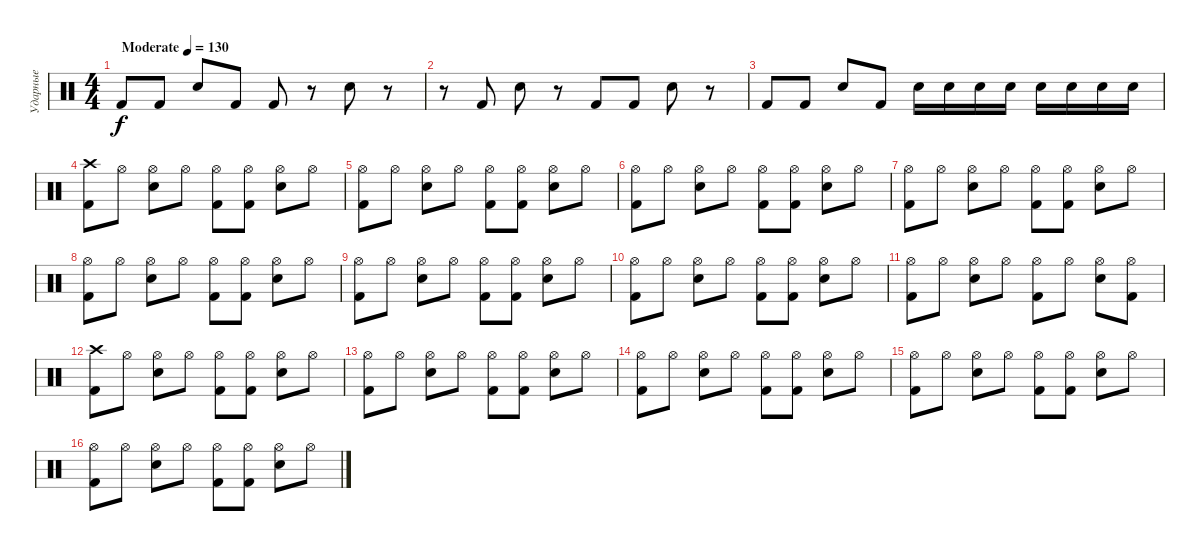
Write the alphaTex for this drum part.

\track ("Ударные" "Ударные") {instrument percussion}
\staff {score}
\articulation defaults
\ts (4 4)
\tempo (130 "Moderate")
\clef neutral
\ks c "Kick (hit) 2".8{dy f} "Kick (hit) 2".8 "Snare (hit) 2".8 "Kick (hit) 2".8 "Kick (hit) 2".8
r.8 "Snare (hit) 2".8 r.8 |
r.8 "Kick (hit) 2".8 "Snare (hit) 2".8 r.8 "Kick (hit) 2".8 "Kick (hit) 2".8 "Snare (hit) 2".8 r.8 |
"Kick (hit) 2".8 "Kick (hit) 2".8 "Snare (hit) 2".8 "Kick (hit) 2".8 "Electric Snare (hit)".16 "Electric Snare (hit)".16 "Electric Snare (hit)".16 "Electric Snare (hit)".16 "Electric Snare (hit)".16 "Electric Snare (hit)".16 "Electric Snare (hit)".16 "Electric Snare (hit)".16 |
("Crash high (hit)" "Kick (hit) 2").8 "Hi-Hat (open)".8 ("Electric Snare (hit)" "Hi-Hat (open)").8 "Hi-Hat (open)".8 ("Hi-Hat (open)" "Kick (hit) 2").8 ("Hi-Hat (open)" "Kick (hit) 2").8 ("Hi-Hat (open)" "Electric Snare (hit)").8 "Hi-Hat (open)".8 |
("Hi-Hat (open)" "Kick (hit) 2").8 "Hi-Hat (open)".8 ("Electric Snare (hit)" "Hi-Hat (open)").8 "Hi-Hat (open)".8 ("Hi-Hat (open)" "Kick (hit) 2").8 ("Hi-Hat (open)" "Kick (hit) 2").8 ("Hi-Hat (open)" "Electric Snare (hit)").8 "Hi-Hat (open)".8 |
("Hi-Hat (open)" "Kick (hit) 2").8 "Hi-Hat (open)".8 ("Electric Snare (hit)" "Hi-Hat (open)").8 "Hi-Hat (open)".8 ("Hi-Hat (open)" "Kick (hit) 2").8 ("Hi-Hat (open)" "Kick (hit) 2").8 ("Hi-Hat (open)" "Electric Snare (hit)").8 "Hi-Hat (open)".8 |
("Hi-Hat (open)" "Kick (hit) 2").8 "Hi-Hat (open)".8 ("Electric Snare (hit)" "Hi-Hat (open)").8 "Hi-Hat (open)".8 ("Hi-Hat (open)" "Kick (hit) 2").8 ("Hi-Hat (open)" "Kick (hit) 2").8 ("Hi-Hat (open)" "Electric Snare (hit)").8 "Hi-Hat (open)".8 |
("Hi-Hat (open)" "Kick (hit) 2").8 "Hi-Hat (open)".8 ("Electric Snare (hit)" "Hi-Hat (open)").8 "Hi-Hat (open)".8 ("Hi-Hat (open)" "Kick (hit) 2").8 ("Hi-Hat (open)" "Kick (hit) 2").8 ("Hi-Hat (open)" "Electric Snare (hit)").8 "Hi-Hat (open)".8 |
("Hi-Hat (open)" "Kick (hit) 2").8 "Hi-Hat (open)".8 ("Electric Snare (hit)" "Hi-Hat (open)").8 "Hi-Hat (open)".8 ("Hi-Hat (open)" "Kick (hit) 2").8 ("Hi-Hat (open)" "Kick (hit) 2").8 ("Hi-Hat (open)" "Electric Snare (hit)").8 "Hi-Hat (open)".8 |
("Hi-Hat (open)" "Kick (hit) 2").8 "Hi-Hat (open)".8 ("Electric Snare (hit)" "Hi-Hat (open)").8 "Hi-Hat (open)".8 ("Hi-Hat (open)" "Kick (hit) 2").8 ("Hi-Hat (open)" "Kick (hit) 2").8 ("Hi-Hat (open)" "Electric Snare (hit)").8 "Hi-Hat (open)".8 |
("Hi-Hat (open)" "Kick (hit) 2").8 "Hi-Hat (open)".8 ("Electric Snare (hit)" "Hi-Hat (open)").8 "Hi-Hat (open)".8 ("Hi-Hat (open)" "Kick (hit) 2").8 "Hi-Hat (open)".8 ("Hi-Hat (open)" "Electric Snare (hit)").8 ("Hi-Hat (open)" "Kick (hit) 2").8 |
("Crash high (hit)" "Kick (hit) 2").8 "Hi-Hat (open)".8 ("Electric Snare (hit)" "Hi-Hat (open)").8 "Hi-Hat (open)".8 ("Hi-Hat (open)" "Kick (hit) 2").8 ("Hi-Hat (open)" "Kick (hit) 2").8 ("Hi-Hat (open)" "Electric Snare (hit)").8 "Hi-Hat (open)".8 |
("Hi-Hat (open)" "Kick (hit) 2").8 "Hi-Hat (open)".8 ("Electric Snare (hit)" "Hi-Hat (open)").8 "Hi-Hat (open)".8 ("Hi-Hat (open)" "Kick (hit) 2").8 ("Hi-Hat (open)" "Kick (hit) 2").8 ("Hi-Hat (open)" "Electric Snare (hit)").8 "Hi-Hat (open)".8 |
("Hi-Hat (open)" "Kick (hit) 2").8 "Hi-Hat (open)".8 ("Electric Snare (hit)" "Hi-Hat (open)").8 "Hi-Hat (open)".8 ("Hi-Hat (open)" "Kick (hit) 2").8 ("Hi-Hat (open)" "Kick (hit) 2").8 ("Hi-Hat (open)" "Electric Snare (hit)").8 "Hi-Hat (open)".8 |
("Hi-Hat (open)" "Kick (hit) 2").8 "Hi-Hat (open)".8 ("Electric Snare (hit)" "Hi-Hat (open)").8 "Hi-Hat (open)".8 ("Hi-Hat (open)" "Kick (hit) 2").8 ("Hi-Hat (open)" "Kick (hit) 2").8 ("Hi-Hat (open)" "Electric Snare (hit)").8 "Hi-Hat (open)".8 |
("Hi-Hat (open)" "Kick (hit) 2").8 "Hi-Hat (open)".8 ("Electric Snare (hit)" "Hi-Hat (open)").8 "Hi-Hat (open)".8 ("Hi-Hat (open)" "Kick (hit) 2").8 ("Hi-Hat (open)" "Kick (hit) 2").8 ("Hi-Hat (open)" "Electric Snare (hit)").8 "Hi-Hat (open)".8
